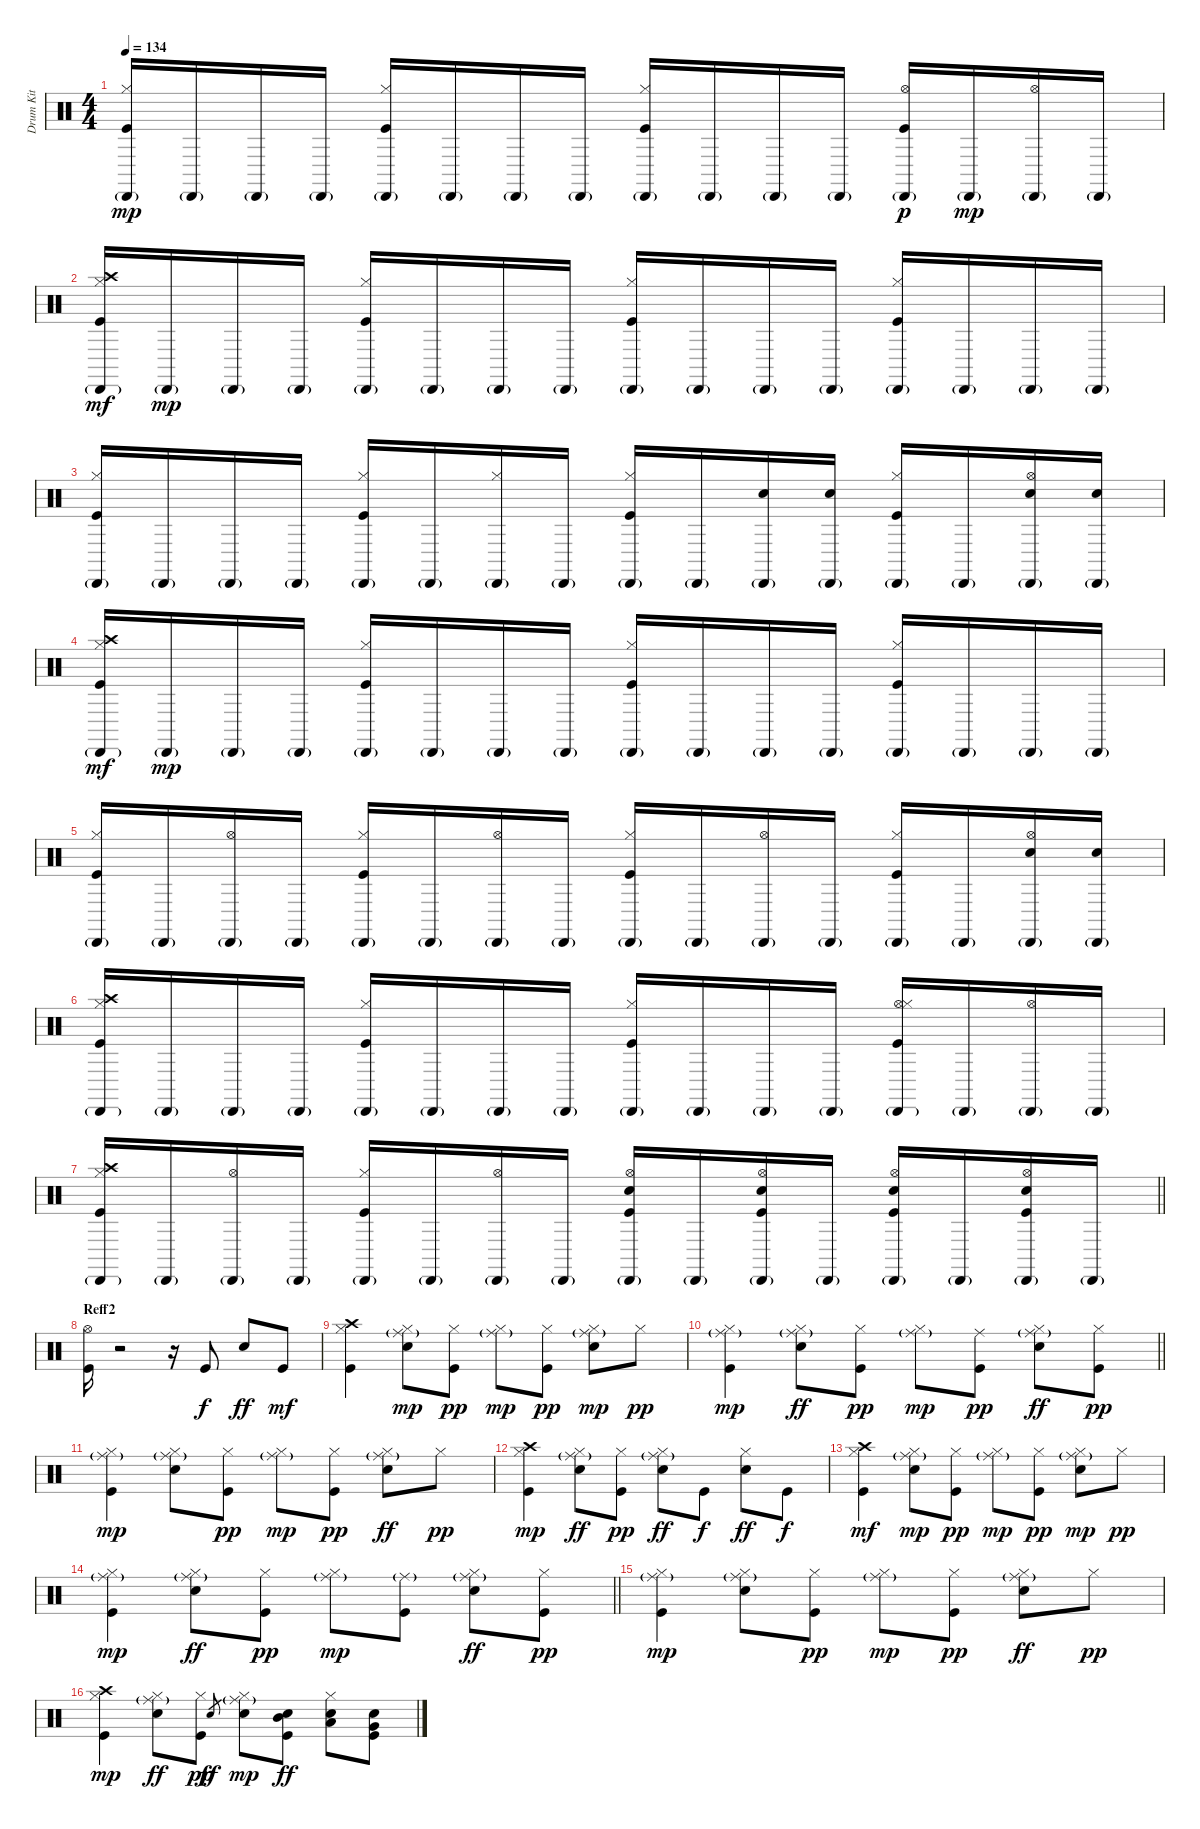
\track ("Drum Kit" "Drum Kit") {instrument percussion}
\staff {score}
\articulation defaults
\ts (4 4)
\tempo 134
\clef neutral
\ks c
("Kick (hit)" "Hi-Hat (closed)" "Cabasa (hit)"{g}).16{dy mp} "Cabasa (hit)"{g}.16 "Cabasa (hit)"{g}.16 "Cabasa (hit)"{g}.16 ("Cabasa (hit)"{g} "Hi-Hat (closed)" "Kick (hit)").16 "Cabasa (hit)"{g}.16 "Cabasa (hit)"{g}.16 "Cabasa (hit)"{g}.16 ("Cabasa (hit)"{g} "Hi-Hat (closed)" "Kick (hit)").16 "Cabasa (hit)"{g}.16 "Cabasa (hit)"{g}.16 "Cabasa (hit)"{g}.16 ("Cabasa (hit)"{g} "Kick (hit)" "Hi-Hat (open)").16{dy p} "Cabasa (hit)"{g}.16{dy mp} ("Hi-Hat (open)" "Cabasa (hit)"{g}).16 "Cabasa (hit)"{g}.16 |
("Kick (hit)" "Hi-Hat (closed)" "Cabasa (hit)"{g} "Crash high (hit)").16{dy mf} "Cabasa (hit)"{g}.16{dy mp} "Cabasa (hit)"{g}.16 "Cabasa (hit)"{g}.16 ("Cabasa (hit)"{g} "Hi-Hat (closed)" "Kick (hit)").16 "Cabasa (hit)"{g}.16 "Cabasa (hit)"{g}.16 "Cabasa (hit)"{g}.16 ("Cabasa (hit)"{g} "Hi-Hat (closed)" "Kick (hit)").16 "Cabasa (hit)"{g}.16 "Cabasa (hit)"{g}.16 "Cabasa (hit)"{g}.16 ("Cabasa (hit)"{g} "Hi-Hat (closed)" "Kick (hit)").16 "Cabasa (hit)"{g}.16 "Cabasa (hit)"{g}.16 "Cabasa (hit)"{g}.16 |
("Kick (hit)" "Hi-Hat (closed)" "Cabasa (hit)"{g}).16 "Cabasa (hit)"{g}.16 "Cabasa (hit)"{g}.16 "Cabasa (hit)"{g}.16 ("Cabasa (hit)"{g} "Hi-Hat (closed)" "Kick (hit)").16 "Cabasa (hit)"{g}.16 ("Hi-Hat (closed)" "Cabasa (hit)"{g}).16 "Cabasa (hit)"{g}.16 ("Cabasa (hit)"{g} "Hi-Hat (closed)" "Kick (hit)").16 "Cabasa (hit)"{g}.16 ("Electric Snare (hit)" "Cabasa (hit)"{g}).16 ("Electric Snare (hit)" "Cabasa (hit)"{g}).16 ("Cabasa (hit)"{g} "Hi-Hat (closed)" "Kick (hit)").16 "Cabasa (hit)"{g}.16 ("Electric Snare (hit)" "Hi-Hat (open)" "Cabasa (hit)"{g}).16 ("Electric Snare (hit)" "Cabasa (hit)"{g}).16 |
("Kick (hit)" "Hi-Hat (closed)" "Cabasa (hit)"{g} "Crash high (hit)").16{dy mf} "Cabasa (hit)"{g}.16{dy mp} "Cabasa (hit)"{g}.16 "Cabasa (hit)"{g}.16 ("Cabasa (hit)"{g} "Hi-Hat (closed)" "Kick (hit)").16 "Cabasa (hit)"{g}.16 "Cabasa (hit)"{g}.16 "Cabasa (hit)"{g}.16 ("Cabasa (hit)"{g} "Hi-Hat (closed)" "Kick (hit)").16 "Cabasa (hit)"{g}.16 "Cabasa (hit)"{g}.16 "Cabasa (hit)"{g}.16 ("Cabasa (hit)"{g} "Hi-Hat (closed)" "Kick (hit)").16 "Cabasa (hit)"{g}.16 "Cabasa (hit)"{g}.16 "Cabasa (hit)"{g}.16 |
("Kick (hit)" "Cabasa (hit)"{g} "Hi-Hat (closed)").16 "Cabasa (hit)"{g}.16 ("Hi-Hat (open)" "Cabasa (hit)"{g}).16 "Cabasa (hit)"{g}.16 ("Cabasa (hit)"{g} "Hi-Hat (closed)" "Kick (hit)").16 "Cabasa (hit)"{g}.16 ("Hi-Hat (open)" "Cabasa (hit)"{g}).16 "Cabasa (hit)"{g}.16 ("Cabasa (hit)"{g} "Hi-Hat (closed)" "Kick (hit)").16 "Cabasa (hit)"{g}.16 ("Hi-Hat (open)" "Cabasa (hit)"{g}).16 "Cabasa (hit)"{g}.16 ("Cabasa (hit)"{g} "Hi-Hat (closed)" "Kick (hit)").16 "Cabasa (hit)"{g}.16 ("Hi-Hat (open)" "Cabasa (hit)"{g} "Electric Snare (hit)").16 ("Cabasa (hit)"{g} "Electric Snare (hit)").16 |
("Crash high (hit)" "Kick (hit)" "Hi-Hat (closed)" "Cabasa (hit)"{g}).16 "Cabasa (hit)"{g}.16 "Cabasa (hit)"{g}.16 "Cabasa (hit)"{g}.16 ("Cabasa (hit)"{g} "Hi-Hat (closed)" "Kick (hit)").16 "Cabasa (hit)"{g}.16 "Cabasa (hit)"{g}.16 "Cabasa (hit)"{g}.16 ("Cabasa (hit)"{g} "Hi-Hat (closed)" "Kick (hit)").16 "Cabasa (hit)"{g}.16 "Cabasa (hit)"{g}.16 "Cabasa (hit)"{g}.16 ("Hi-Hat (open)" "Cabasa (hit)"{g} "Hi-Hat (closed)" "Kick (hit)").16 "Cabasa (hit)"{g}.16 ("Hi-Hat (open)" "Cabasa (hit)"{g}).16 "Cabasa (hit)"{g}.16 |
\barLineRight lightlight
("Crash high (hit)" "Kick (hit)" "Hi-Hat (closed)" "Cabasa (hit)"{g}).16 "Cabasa (hit)"{g}.16 ("Hi-Hat (open)" "Cabasa (hit)"{g}).16 "Cabasa (hit)"{g}.16 ("Cabasa (hit)"{g} "Hi-Hat (closed)" "Kick (hit)").16 "Cabasa (hit)"{g}.16 ("Hi-Hat (open)" "Cabasa (hit)"{g}).16 "Cabasa (hit)"{g}.16 ("Electric Snare (hit)" "Cabasa (hit)"{g} "Kick (hit)" "Hi-Hat (open)").16 "Cabasa (hit)"{g}.16 ("Hi-Hat (open)" "Kick (hit)" "Cabasa (hit)"{g} "Electric Snare (hit)").16 "Cabasa (hit)"{g}.16 ("Hi-Hat (open)" "Electric Snare (hit)" "Cabasa (hit)"{g} "Kick (hit)").16 "Cabasa (hit)"{g}.16 ("Hi-Hat (open)" "Kick (hit)" "Cabasa (hit)"{g} "Electric Snare (hit)").16 "Cabasa (hit)"{g}.16 |
\section ("" "Reff2")
("Hi-Hat (open)" "Kick (hit)").16 r.2 r.16 "Kick (hit)".8{dy f} "Electric Snare (hit)".8{dy ff} "Kick (hit)".8{dy mf} |
("Kick (hit)" "Hi-Hat (closed)" "Crash high (hit)").4 ("Hi-Hat (closed)" "Electric Snare (hit)" "Ride (middle)"{g}).8{dy mp} ("Kick (hit)" "Hi-Hat (closed)").8{dy pp} ("Hi-Hat (closed)" "Ride (middle)"{g}).8{dy mp} ("Hi-Hat (closed)" "Kick (hit)").8{dy pp} ("Hi-Hat (closed)" "Electric Snare (hit)" "Ride (middle)"{g}).8{dy mp} "Hi-Hat (closed)".8{dy pp} |
\barLineRight lightlight
("Ride (middle)"{g} "Hi-Hat (closed)" "Kick (hit)").4{dy mp} ("Ride (middle)"{g} "Hi-Hat (closed)" "Electric Snare (hit)").8{dy ff} ("Hi-Hat (closed)" "Kick (hit)").8{dy pp} ("Ride (middle)"{g} "Hi-Hat (closed)").8{dy mp} ("Kick (hit)" "Ride (middle)").8{dy pp} ("Ride (middle)"{g} "Hi-Hat (closed)" "Electric Snare (hit)").8{dy ff} ("Hi-Hat (closed)" "Kick (hit)").8{dy pp} |
("Ride (middle)"{g} "Kick (hit)" "Hi-Hat (closed)").4{dy mp} ("Hi-Hat (closed)" "Electric Snare (hit)" "Ride (middle)"{g}).8 ("Kick (hit)" "Hi-Hat (closed)").8{dy pp} ("Hi-Hat (closed)" "Ride (middle)"{g}).8{dy mp} ("Hi-Hat (closed)" "Kick (hit)").8{dy pp} ("Ride (middle)"{g} "Hi-Hat (closed)" "Electric Snare (hit)").8{dy ff} "Hi-Hat (closed)".8{dy pp} |
("Crash high (hit)" "Hi-Hat (closed)" "Kick (hit)").4{dy mp} ("Ride (middle)"{g} "Hi-Hat (closed)" "Electric Snare (hit)").8{dy ff} ("Hi-Hat (closed)" "Kick (hit)").8{dy pp} ("Ride (middle)"{g} "Hi-Hat (closed)" "Electric Snare (hit)").8{dy ff} "Kick (hit)".8{dy f} ("Hi-Hat (closed)" "Electric Snare (hit)").8{dy ff} "Kick (hit)".8{dy f} |
("Kick (hit)" "Hi-Hat (closed)" "Crash high (hit)").4{dy mf} ("Hi-Hat (closed)" "Electric Snare (hit)" "Ride (middle)"{g}).8{dy mp} ("Kick (hit)" "Hi-Hat (closed)").8{dy pp} ("Hi-Hat (closed)" "Ride (middle)"{g}).8{dy mp} ("Hi-Hat (closed)" "Kick (hit)").8{dy pp} ("Hi-Hat (closed)" "Electric Snare (hit)" "Ride (middle)"{g}).8{dy mp} "Hi-Hat (closed)".8{dy pp} |
\barLineRight lightlight
("Ride (middle)"{g} "Hi-Hat (closed)" "Kick (hit)").4{dy mp} ("Ride (middle)"{g} "Hi-Hat (closed)" "Electric Snare (hit)").8{dy ff} ("Hi-Hat (closed)" "Kick (hit)").8{dy pp} ("Ride (middle)"{g} "Hi-Hat (closed)").8{dy mp} ("Kick (hit)" "Ride (middle)"{g}).8 ("Ride (middle)"{g} "Hi-Hat (closed)" "Electric Snare (hit)").8{dy ff} ("Hi-Hat (closed)" "Kick (hit)").8{dy pp} |
("Ride (middle)"{g} "Kick (hit)" "Hi-Hat (closed)").4{dy mp} ("Hi-Hat (closed)" "Electric Snare (hit)" "Ride (middle)"{g}).8 ("Kick (hit)" "Hi-Hat (closed)").8{dy pp} ("Hi-Hat (closed)" "Ride (middle)"{g}).8{dy mp} ("Hi-Hat (closed)" "Kick (hit)").8{dy pp} ("Ride (middle)"{g} "Hi-Hat (closed)" "Electric Snare (hit)").8{dy ff} "Hi-Hat (closed)".8{dy pp} |
("Crash high (hit)" "Hi-Hat (closed)" "Kick (hit)").4{dy mp} ("Ride (middle)"{g} "Hi-Hat (closed)" "Electric Snare (hit)").8{dy ff} ("Hi-Hat (closed)" "Kick (hit)").8{dy pp} "Electric Snare (hit)".8{gr dy ff} ("Electric Snare (hit)" "Ride (middle)"{g} "Hi-Hat (closed)").8{dy mp} ("Electric Snare (hit)" "Mid Tom (hit)" "Kick (hit)").8{dy ff} ("Electric Snare (hit)" "Hi-Hat (closed)" "Low Tom (hit)").8 ("Electric Snare (hit)" "Very Low Tom (hit)" "Kick (hit)").8
